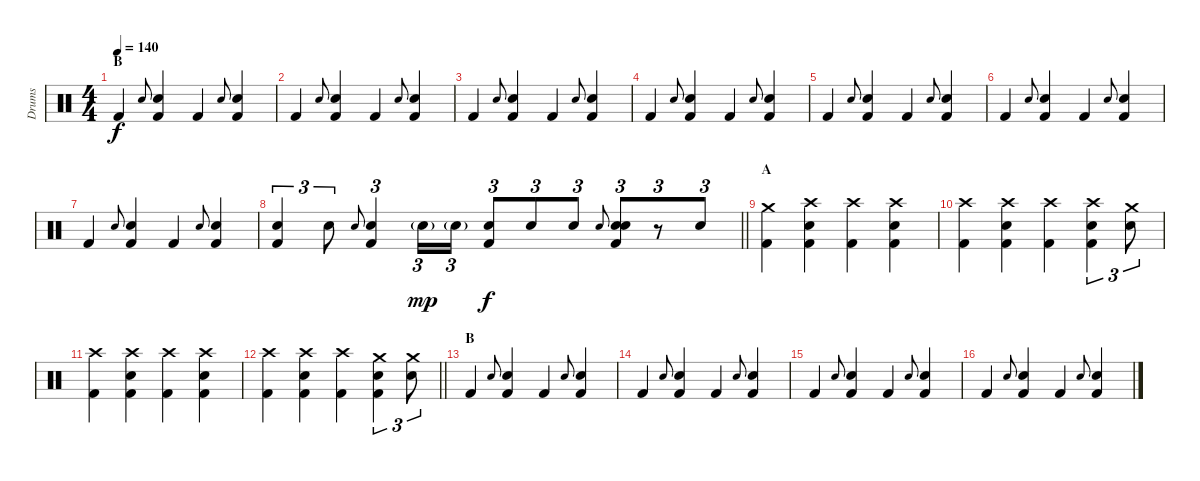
\track ("Drums" "Drums") {instrument percussion}
\staff {score}
\articulation defaults
\ts (4 4)
\section ("" "B")
\tempo 140
\clef neutral
\ks c "Kick (hit) 2".4{dy f} "Hand Clap (hit)".8{gr onbeat}
("Hand Clap (hit)" "Kick (hit) 2").4 "Kick (hit) 2".4 "Hand Clap (hit)".8{gr onbeat} ("Hand Clap (hit)" "Kick (hit) 2").4 |
"Kick (hit) 2".4 "Hand Clap (hit)".8{gr onbeat} ("Hand Clap (hit)" "Kick (hit) 2").4 "Kick (hit) 2".4 "Hand Clap (hit)".8{gr onbeat} ("Hand Clap (hit)" "Kick (hit) 2").4 |
"Kick (hit) 2".4 "Hand Clap (hit)".8{gr onbeat} ("Hand Clap (hit)" "Kick (hit) 2").4 "Kick (hit) 2".4 "Hand Clap (hit)".8{gr onbeat} ("Hand Clap (hit)" "Kick (hit) 2").4 |
"Kick (hit) 2".4 "Hand Clap (hit)".8{gr onbeat} ("Hand Clap (hit)" "Kick (hit) 2").4 "Kick (hit) 2".4 "Hand Clap (hit)".8{gr onbeat} ("Hand Clap (hit)" "Kick (hit) 2").4 |
"Kick (hit) 2".4 "Hand Clap (hit)".8{gr onbeat} ("Hand Clap (hit)" "Kick (hit) 2").4 "Kick (hit) 2".4 "Hand Clap (hit)".8{gr onbeat} ("Hand Clap (hit)" "Kick (hit) 2").4 |
"Kick (hit) 2".4 "Hand Clap (hit)".8{gr onbeat} ("Hand Clap (hit)" "Kick (hit) 2").4 "Kick (hit) 2".4 "Hand Clap (hit)".8{gr onbeat} ("Hand Clap (hit)" "Kick (hit) 2").4 |
"Kick (hit) 2".4 "Hand Clap (hit)".8{gr onbeat} ("Hand Clap (hit)" "Kick (hit) 2").4 "Kick (hit) 2".4 "Hand Clap (hit)".8{gr onbeat} ("Hand Clap (hit)" "Kick (hit) 2").4 |
\barLineRight lightlight
("Electric Snare (hit)" "Kick (hit) 2").4{tu (3 2)} "Electric Snare (hit)".8{tu (3 2)} "Hand Clap (hit)".8{gr onbeat} ("Kick (hit) 2" "Hand Clap (hit)").4{tu (3 2)} "Electric Snare (hit)"{g}.16{tu (3 2) dy mp} "Electric Snare (hit)"{g}.16{tu (3 2)} ("Kick (hit) 2" "Electric Snare (hit)").8{tu (3 2) dy f} "Electric Snare (hit)".8{tu (3 2)} "Electric Snare (hit)".8{tu (3 2)} "Hand Clap (hit)".8{gr onbeat} ("Hand Clap (hit)" "Kick (hit) 2" "Electric Snare (hit)").8{tu (3 2)} r.8{tu (3 2)} "Electric Snare (hit)".8{tu (3 2)} |
\section ("" "A")
("Kick (hit) 2" "Crash medium (hit)").4 ("Crash high (hit)" "Electric Snare (hit)" "Kick (hit) 2").4 ("Crash high (hit)" "Kick (hit) 2").4 ("Crash high (hit)" "Electric Snare (hit)" "Kick (hit) 2").4 |
("Crash high (hit)" "Kick (hit) 2").4 ("Crash high (hit)" "Electric Snare (hit)" "Kick (hit) 2").4 ("Crash high (hit)" "Kick (hit) 2").4 ("Crash high (hit)" "Electric Snare (hit)" "Kick (hit) 2").4{tu (3 2)} ("Electric Snare (hit)" "Crash medium (hit)").8{tu (3 2)} |
("Crash high (hit)" "Kick (hit) 2").4 ("Crash high (hit)" "Electric Snare (hit)" "Kick (hit) 2").4 ("Crash high (hit)" "Kick (hit) 2").4 ("Crash high (hit)" "Electric Snare (hit)" "Kick (hit) 2").4 |
\barLineRight lightlight
("Crash high (hit)" "Kick (hit) 2").4 ("Crash high (hit)" "Electric Snare (hit)" "Kick (hit) 2").4 ("Crash high (hit)" "Kick (hit) 2").4 ("Crash medium (hit)" "Electric Snare (hit)" "Kick (hit) 2").4{tu (3 2)} ("Electric Snare (hit)" "Crash medium (hit)").8{tu (3 2)} |
\section ("" "B")
"Kick (hit) 2".4 "Hand Clap (hit)".8{gr onbeat} ("Hand Clap (hit)" "Kick (hit) 2").4 "Kick (hit) 2".4 "Hand Clap (hit)".8{gr onbeat} ("Hand Clap (hit)" "Kick (hit) 2").4 |
"Kick (hit) 2".4 "Hand Clap (hit)".8{gr onbeat} ("Hand Clap (hit)" "Kick (hit) 2").4 "Kick (hit) 2".4 "Hand Clap (hit)".8{gr onbeat} ("Hand Clap (hit)" "Kick (hit) 2").4 |
"Kick (hit) 2".4 "Hand Clap (hit)".8{gr onbeat} ("Hand Clap (hit)" "Kick (hit) 2").4 "Kick (hit) 2".4 "Hand Clap (hit)".8{gr onbeat} ("Hand Clap (hit)" "Kick (hit) 2").4 |
"Kick (hit) 2".4 "Hand Clap (hit)".8{gr onbeat} ("Hand Clap (hit)" "Kick (hit) 2").4 "Kick (hit) 2".4 "Hand Clap (hit)".8{gr onbeat} ("Hand Clap (hit)" "Kick (hit) 2").4
